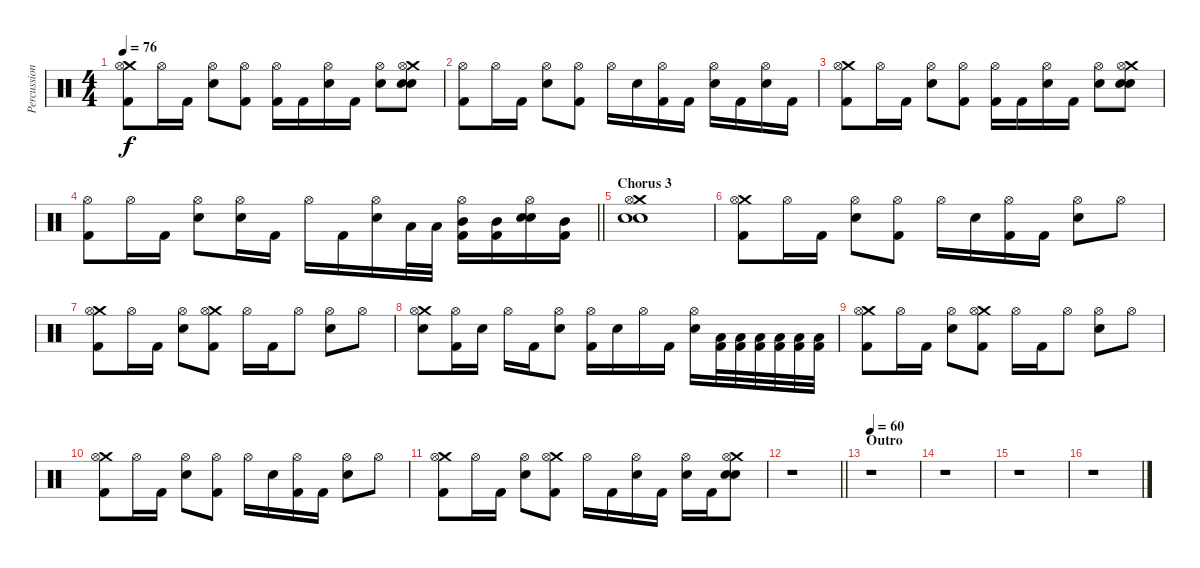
\track ("Percussions" "Percussion") {instrument percussion}
\staff {score}
\articulation defaults
\ts (4 4)
\tempo 76
\clef neutral
\ks c
("Crash medium (hit)" "Hi-Hat (open)" "Kick (hit) 2").8{dy f} "Hi-Hat (open)".16 "Kick (hit) 2".16 ("Hi-Hat (open)" "Snare (hit) 2").8 ("Hi-Hat (open)" "Kick (hit) 2").8 ("Hi-Hat (open)" "Kick (hit) 2").16 "Kick (hit) 2".16 ("Hi-Hat (open)" "Snare (hit) 2").16 "Kick (hit) 2".16 ("Hi-Hat (open)" "Snare (hit) 2").8 ("Crash medium (hit)" "Hi-Hat (open)" "Snare (hit) 2" "Electric Snare (hit)").8 |
("Hi-Hat (open)" "Kick (hit) 2").8 "Hi-Hat (open)".16 "Kick (hit) 2".16 ("Hi-Hat (open)" "Snare (hit) 2").8 ("Hi-Hat (open)" "Kick (hit) 2").8 "Hi-Hat (open)".16 "Snare (hit) 2".16 ("Hi-Hat (open)" "Kick (hit) 2").16 "Kick (hit) 2".16 ("Hi-Hat (open)" "Snare (hit) 2").16 "Kick (hit) 2".16 ("Hi-Hat (open)" "Snare (hit) 2").16 "Kick (hit) 2".16 |
("Crash medium (hit)" "Hi-Hat (open)" "Kick (hit) 2").8 "Hi-Hat (open)".16 "Kick (hit) 2".16 ("Hi-Hat (open)" "Snare (hit) 2").8 ("Hi-Hat (open)" "Kick (hit) 2").8 ("Hi-Hat (open)" "Kick (hit) 2").16 "Kick (hit) 2".16 ("Hi-Hat (open)" "Snare (hit) 2").16 "Kick (hit) 2".16 ("Hi-Hat (open)" "Snare (hit) 2").8 ("Crash medium (hit)" "Hi-Hat (open)" "Snare (hit) 2" "Electric Snare (hit)").8 |
\barLineRight lightlight
("Hi-Hat (open)" "Kick (hit) 2").8 "Hi-Hat (open)".16 "Kick (hit) 2".16 ("Hi-Hat (open)" "Snare (hit) 2").8 ("Hi-Hat (open)" "Snare (hit) 2").16 "Kick (hit) 2".16 "Hi-Hat (open)".16 "Kick (hit) 2".16 ("Hi-Hat (open)" "Snare (hit) 2").16 "Low Floor Tom (hit)".32 "Low Floor Tom (hit)".32 ("Hi-Hat (open)" "Mid Tom (hit)" "Kick (hit) 2").16 ("Mid Tom (hit)" "Kick (hit) 2").16 ("Hi-Hat (open)" "Snare (hit) 2" "Electric Snare (hit)").16 ("Mid Tom (hit)" "Kick (hit) 2").16 |
\section ("" "Chorus 3")
("Crash medium (hit)" "Hi-Hat (open)" "Snare (hit) 2" "Electric Snare (hit)").1 |
("Crash medium (hit)" "Hi-Hat (open)" "Kick (hit) 2").8 "Hi-Hat (open)".16 "Kick (hit) 2".16 ("Hi-Hat (open)" "Snare (hit) 2").8 ("Hi-Hat (open)" "Kick (hit) 2").8 "Hi-Hat (open)".16 "Snare (hit) 2".16 ("Hi-Hat (open)" "Kick (hit) 2").16 "Kick (hit) 2".16 ("Hi-Hat (open)" "Snare (hit) 2").8 "Hi-Hat (open)".8 |
("Crash medium (hit)" "Hi-Hat (open)" "Kick (hit) 2").8 "Hi-Hat (open)".16 "Kick (hit) 2".16 ("Hi-Hat (open)" "Snare (hit) 2").8 ("Crash medium (hit)" "Hi-Hat (open)" "Kick (hit) 2").8 "Hi-Hat (open)".16 "Kick (hit) 2".16 "Hi-Hat (open)".8 ("Hi-Hat (open)" "Snare (hit) 2").8 "Hi-Hat (open)".8 |
("Crash medium (hit)" "Hi-Hat (open)" "Snare (hit) 2").8 ("Hi-Hat (open)" "Kick (hit) 2").16 "Snare (hit) 2".16 "Hi-Hat (open)".16 "Kick (hit) 2".16 ("Hi-Hat (open)" "Snare (hit) 2").8 ("Hi-Hat (open)" "Kick (hit) 2").16 "Snare (hit) 2".16 "Hi-Hat (open)".16 "Kick (hit) 2".16 ("Hi-Hat (open)" "Snare (hit) 2").16 ("Low Floor Tom (hit)" "Kick (hit) 2").32 ("Low Floor Tom (hit)" "Kick (hit) 2").32 ("Low Floor Tom (hit)" "Kick (hit) 2").32 ("Low Floor Tom (hit)" "Kick (hit) 2").32 ("Low Floor Tom (hit)" "Kick (hit) 2").32 ("Low Floor Tom (hit)" "Kick (hit) 2").32 |
("Crash medium (hit)" "Hi-Hat (open)" "Kick (hit) 2").8 "Hi-Hat (open)".16 "Kick (hit) 2".16 ("Hi-Hat (open)" "Snare (hit) 2").8 ("Crash medium (hit)" "Hi-Hat (open)" "Kick (hit) 2").8 "Hi-Hat (open)".16 "Kick (hit) 2".16 "Hi-Hat (open)".8 ("Hi-Hat (open)" "Snare (hit) 2").8 "Hi-Hat (open)".8 |
("Crash medium (hit)" "Hi-Hat (open)" "Kick (hit) 2").8 "Hi-Hat (open)".16 "Kick (hit) 2".16 ("Hi-Hat (open)" "Snare (hit) 2").8 ("Hi-Hat (open)" "Kick (hit) 2").8 "Hi-Hat (open)".16 "Snare (hit) 2".16 ("Hi-Hat (open)" "Kick (hit) 2").16 "Kick (hit) 2".16 ("Hi-Hat (open)" "Snare (hit) 2").8 "Hi-Hat (open)".8 |
("Crash medium (hit)" "Hi-Hat (open)" "Kick (hit) 2").8 "Hi-Hat (open)".16 "Kick (hit) 2".16 ("Hi-Hat (open)" "Snare (hit) 2").8 ("Crash medium (hit)" "Hi-Hat (open)" "Kick (hit) 2").8 "Hi-Hat (open)".16 "Kick (hit) 2".16 ("Hi-Hat (open)" "Snare (hit) 2").16 "Kick (hit) 2".16 ("Hi-Hat (open)" "Snare (hit) 2").16 "Kick (hit) 2".16 ("Crash medium (hit)" "Hi-Hat (open)" "Snare (hit) 2" "Electric Snare (hit)").8 |
\barLineRight lightlight
r.1 |
\section ("" "Outro")
\tempo 60
r.1 |
r.1 |
r.1 |
r.1
